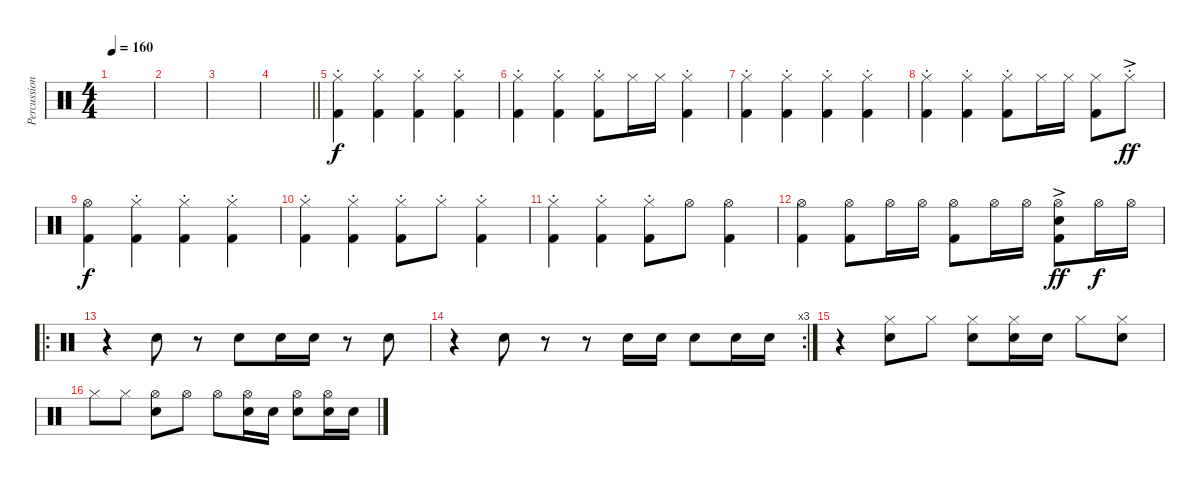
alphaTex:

\track ("Percussion" "Percussion") {instrument percussion}
\staff {score}
\articulation defaults
\ts (4 4)
\tempo 160
\clef neutral
\ks c
|
|
|
\barLineRight lightlight
|
("Hi-Hat (closed)"{st} "Kick (hit) 2").4 ("Hi-Hat (closed)"{st} "Kick (hit) 2").4 ("Hi-Hat (closed)"{st} "Kick (hit) 2").4 ("Hi-Hat (closed)"{st} "Kick (hit) 2").4 |
("Hi-Hat (closed)"{st} "Kick (hit) 2").4 ("Hi-Hat (closed)"{st} "Kick (hit) 2").4 ("Hi-Hat (closed)"{st} "Kick (hit) 2").8 "Hi-Hat (closed)".16 "Hi-Hat (closed)".16 ("Hi-Hat (closed)"{st} "Kick (hit) 2").4 |
("Hi-Hat (closed)"{st} "Kick (hit) 2").4 ("Hi-Hat (closed)"{st} "Kick (hit) 2").4 ("Hi-Hat (closed)"{st} "Kick (hit) 2").4 ("Hi-Hat (closed)"{st} "Kick (hit) 2").4 |
("Hi-Hat (closed)"{st} "Kick (hit) 2").4 ("Hi-Hat (closed)"{st} "Kick (hit) 2").4 ("Hi-Hat (closed)"{st} "Kick (hit) 2").8 "Hi-Hat (closed)".16 "Hi-Hat (closed)".16 ("Hi-Hat (closed)" "Kick (hit) 2").8 "Hi-Hat (closed)"{ac st}.8{dy ff} |
("Hi-Hat (open)" "Kick (hit) 2").4{dy f} ("Hi-Hat (closed)"{st} "Kick (hit) 2").4 ("Hi-Hat (closed)"{st} "Kick (hit) 2").4 ("Hi-Hat (closed)"{st} "Kick (hit) 2").4 |
("Hi-Hat (closed)"{st} "Kick (hit) 2").4 ("Hi-Hat (closed)"{st} "Kick (hit) 2").4 ("Hi-Hat (closed)"{st} "Kick (hit) 2").8 "Hi-Hat (closed)"{st}.8 ("Hi-Hat (closed)"{st} "Kick (hit) 2").4 |
("Hi-Hat (closed)"{st} "Kick (hit) 2").4 ("Hi-Hat (closed)"{st} "Kick (hit) 2").4 ("Hi-Hat (closed)"{st} "Kick (hit) 2").8 "Hi-Hat (open)".8 ("Hi-Hat (open)" "Kick (hit) 2").4 |
("Hi-Hat (open)" "Kick (hit) 2").4 ("Hi-Hat (open)" "Kick (hit) 2").8 "Hi-Hat (open)".16 "Hi-Hat (open)".16 ("Hi-Hat (open)" "Kick (hit) 2").8 "Hi-Hat (open)".16 "Hi-Hat (open)".16 ("Hi-Hat (open)" "Electric Snare (hit)"{ac} "Kick (hit) 2").8{dy ff} "Hi-Hat (open)".16{dy f} "Hi-Hat (open)".16 |
\ro
r.4 "Electric Snare (hit)".8 r.8 "Electric Snare (hit)".8 "Electric Snare (hit)".16 "Electric Snare (hit)".16 r.8 "Electric Snare (hit)".8 |
\rc 3
r.4 "Electric Snare (hit)".8 r.8 r.8 "Electric Snare (hit)".16 "Electric Snare (hit)".16 "Electric Snare (hit)".8 "Electric Snare (hit)".16 "Electric Snare (hit)".16 |
r.4 ("Hi-Hat (closed)" "Electric Snare (hit)").8 "Hi-Hat (closed)".8 ("Hi-Hat (closed)" "Electric Snare (hit)").8 ("Hi-Hat (closed)" "Electric Snare (hit)").16 "Electric Snare (hit)".16 "Hi-Hat (closed)".8 ("Hi-Hat (closed)" "Electric Snare (hit)").8 |
"Hi-Hat (closed)".8 "Hi-Hat (closed)".8 ("Hi-Hat (open)" "Electric Snare (hit)").8 "Hi-Hat (open)".8 "Hi-Hat (open)".8 ("Hi-Hat (open)" "Electric Snare (hit)").16 "Electric Snare (hit)".16 ("Hi-Hat (open)" "Electric Snare (hit)").8 ("Hi-Hat (open)" "Electric Snare (hit)").16 "Electric Snare (hit)".16
